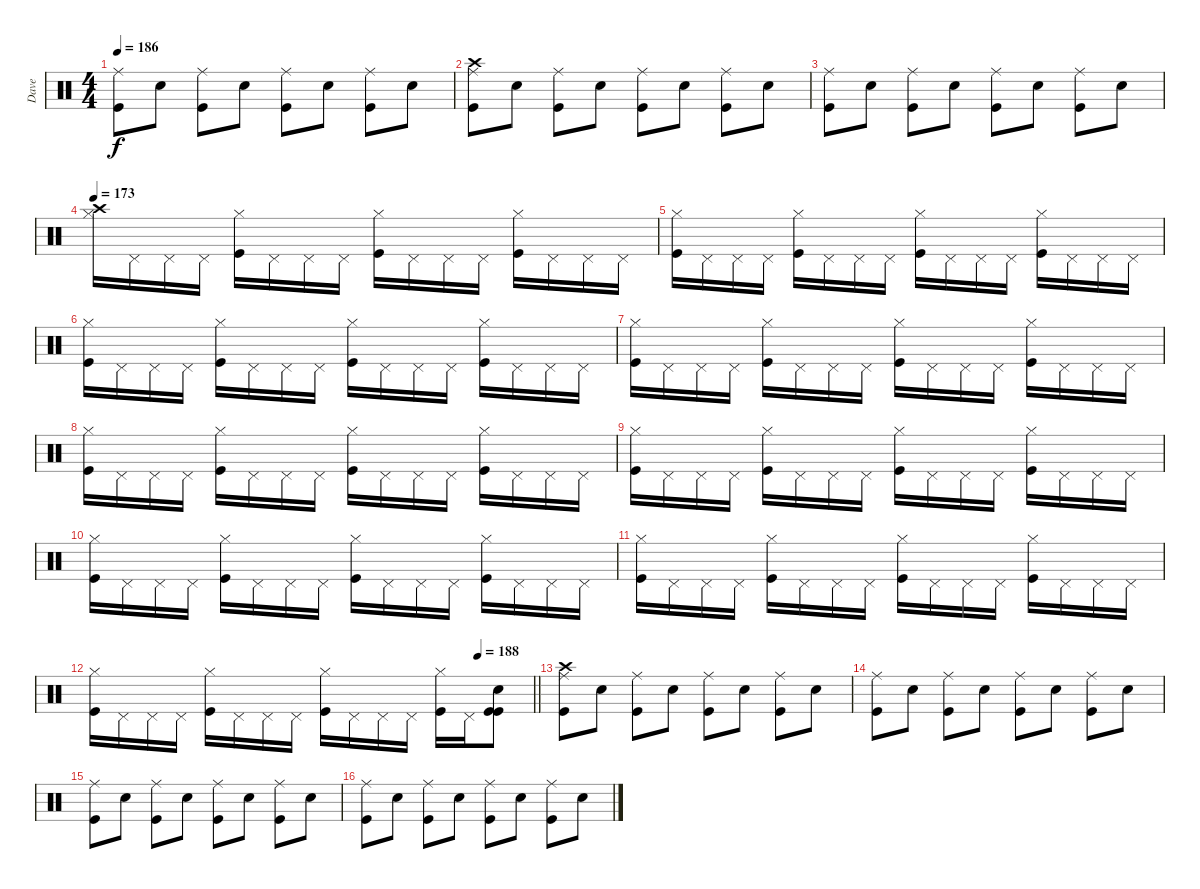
\track ("Dave" "Dave") {instrument percussion}
\staff {score}
\articulation defaults
\ts (4 4)
\tempo 186
\clef neutral
\ks c
("Ride (middle)" "Kick (hit)").8{dy f} "Snare (hit) 2".8 ("Ride (middle)" "Kick (hit)").8 "Snare (hit) 2".8 ("Ride (middle)" "Kick (hit)").8 "Snare (hit) 2".8 ("Ride (middle)" "Kick (hit)").8 "Snare (hit) 2".8 |
("Crash high (hit)" "Ride (middle)" "Kick (hit)").8 "Snare (hit) 2".8 ("Ride (middle)" "Kick (hit)").8 "Snare (hit) 2".8 ("Ride (middle)" "Kick (hit)").8 "Snare (hit) 2".8 ("Ride (middle)" "Kick (hit)").8 "Snare (hit) 2".8 |
("Ride (middle)" "Kick (hit)").8 "Snare (hit) 2".8 ("Ride (middle)" "Kick (hit)").8 "Snare (hit) 2".8 ("Ride (middle)" "Kick (hit)").8 "Snare (hit) 2".8 ("Ride (middle)" "Kick (hit)").8 "Snare (hit) 2".8 |
\tempo 173
("Crash high (hit)" "Hi-Hat (closed)").16 "Pedal Hi-Hat (hit)".16 "Pedal Hi-Hat (hit)".16 "Pedal Hi-Hat (hit)".16 ("Kick (hit)" "Hi-Hat (closed)").16 "Pedal Hi-Hat (hit)".16 "Pedal Hi-Hat (hit)".16 "Pedal Hi-Hat (hit)".16 ("Kick (hit)" "Hi-Hat (closed)").16 "Pedal Hi-Hat (hit)".16 "Pedal Hi-Hat (hit)".16 "Pedal Hi-Hat (hit)".16 ("Kick (hit)" "Hi-Hat (closed)").16 "Pedal Hi-Hat (hit)".16 "Pedal Hi-Hat (hit)".16 "Pedal Hi-Hat (hit)".16 |
("Kick (hit)" "Hi-Hat (closed)").16 "Pedal Hi-Hat (hit)".16 "Pedal Hi-Hat (hit)".16 "Pedal Hi-Hat (hit)".16 ("Kick (hit)" "Hi-Hat (closed)").16 "Pedal Hi-Hat (hit)".16 "Pedal Hi-Hat (hit)".16 "Pedal Hi-Hat (hit)".16 ("Kick (hit)" "Hi-Hat (closed)").16 "Pedal Hi-Hat (hit)".16 "Pedal Hi-Hat (hit)".16 "Pedal Hi-Hat (hit)".16 ("Kick (hit)" "Hi-Hat (closed)").16 "Pedal Hi-Hat (hit)".16 "Pedal Hi-Hat (hit)".16 "Pedal Hi-Hat (hit)".16 |
("Kick (hit)" "Hi-Hat (closed)").16 "Pedal Hi-Hat (hit)".16 "Pedal Hi-Hat (hit)".16 "Pedal Hi-Hat (hit)".16 ("Kick (hit)" "Hi-Hat (closed)").16 "Pedal Hi-Hat (hit)".16 "Pedal Hi-Hat (hit)".16 "Pedal Hi-Hat (hit)".16 ("Kick (hit)" "Hi-Hat (closed)").16 "Pedal Hi-Hat (hit)".16 "Pedal Hi-Hat (hit)".16 "Pedal Hi-Hat (hit)".16 ("Kick (hit)" "Hi-Hat (closed)").16 "Pedal Hi-Hat (hit)".16 "Pedal Hi-Hat (hit)".16 "Pedal Hi-Hat (hit)".16 |
("Kick (hit)" "Hi-Hat (closed)").16 "Pedal Hi-Hat (hit)".16 "Pedal Hi-Hat (hit)".16 "Pedal Hi-Hat (hit)".16 ("Kick (hit)" "Hi-Hat (closed)").16 "Pedal Hi-Hat (hit)".16 "Pedal Hi-Hat (hit)".16 "Pedal Hi-Hat (hit)".16 ("Kick (hit)" "Hi-Hat (closed)").16 "Pedal Hi-Hat (hit)".16 "Pedal Hi-Hat (hit)".16 "Pedal Hi-Hat (hit)".16 ("Kick (hit)" "Hi-Hat (closed)").16 "Pedal Hi-Hat (hit)".16 "Pedal Hi-Hat (hit)".16 "Pedal Hi-Hat (hit)".16 |
("Kick (hit)" "Hi-Hat (closed)").16 "Pedal Hi-Hat (hit)".16 "Pedal Hi-Hat (hit)".16 "Pedal Hi-Hat (hit)".16 ("Kick (hit)" "Hi-Hat (closed)").16 "Pedal Hi-Hat (hit)".16 "Pedal Hi-Hat (hit)".16 "Pedal Hi-Hat (hit)".16 ("Kick (hit)" "Hi-Hat (closed)").16 "Pedal Hi-Hat (hit)".16 "Pedal Hi-Hat (hit)".16 "Pedal Hi-Hat (hit)".16 ("Kick (hit)" "Hi-Hat (closed)").16 "Pedal Hi-Hat (hit)".16 "Pedal Hi-Hat (hit)".16 "Pedal Hi-Hat (hit)".16 |
("Kick (hit)" "Hi-Hat (closed)").16 "Pedal Hi-Hat (hit)".16 "Pedal Hi-Hat (hit)".16 "Pedal Hi-Hat (hit)".16 ("Kick (hit)" "Hi-Hat (closed)").16 "Pedal Hi-Hat (hit)".16 "Pedal Hi-Hat (hit)".16 "Pedal Hi-Hat (hit)".16 ("Kick (hit)" "Hi-Hat (closed)").16 "Pedal Hi-Hat (hit)".16 "Pedal Hi-Hat (hit)".16 "Pedal Hi-Hat (hit)".16 ("Kick (hit)" "Hi-Hat (closed)").16 "Pedal Hi-Hat (hit)".16 "Pedal Hi-Hat (hit)".16 "Pedal Hi-Hat (hit)".16 |
("Kick (hit)" "Hi-Hat (closed)").16 "Pedal Hi-Hat (hit)".16 "Pedal Hi-Hat (hit)".16 "Pedal Hi-Hat (hit)".16 ("Kick (hit)" "Hi-Hat (closed)").16 "Pedal Hi-Hat (hit)".16 "Pedal Hi-Hat (hit)".16 "Pedal Hi-Hat (hit)".16 ("Kick (hit)" "Hi-Hat (closed)").16 "Pedal Hi-Hat (hit)".16 "Pedal Hi-Hat (hit)".16 "Pedal Hi-Hat (hit)".16 ("Kick (hit)" "Hi-Hat (closed)").16 "Pedal Hi-Hat (hit)".16 "Pedal Hi-Hat (hit)".16 "Pedal Hi-Hat (hit)".16 |
("Kick (hit)" "Hi-Hat (closed)").16 "Pedal Hi-Hat (hit)".16 "Pedal Hi-Hat (hit)".16 "Pedal Hi-Hat (hit)".16 ("Kick (hit)" "Hi-Hat (closed)").16 "Pedal Hi-Hat (hit)".16 "Pedal Hi-Hat (hit)".16 "Pedal Hi-Hat (hit)".16 ("Kick (hit)" "Hi-Hat (closed)").16 "Pedal Hi-Hat (hit)".16 "Pedal Hi-Hat (hit)".16 "Pedal Hi-Hat (hit)".16 ("Kick (hit)" "Hi-Hat (closed)").16 "Pedal Hi-Hat (hit)".16 "Pedal Hi-Hat (hit)".16 "Pedal Hi-Hat (hit)".16 |
\tempo (188 0.875)
\barLineRight lightlight
("Kick (hit)" "Hi-Hat (closed)").16 "Pedal Hi-Hat (hit)".16 "Pedal Hi-Hat (hit)".16 "Pedal Hi-Hat (hit)".16 ("Kick (hit)" "Hi-Hat (closed)").16 "Pedal Hi-Hat (hit)".16 "Pedal Hi-Hat (hit)".16 "Pedal Hi-Hat (hit)".16 ("Kick (hit)" "Hi-Hat (closed)").16 "Pedal Hi-Hat (hit)".16 "Pedal Hi-Hat (hit)".16 "Pedal Hi-Hat (hit)".16 ("Kick (hit)" "Hi-Hat (closed)").16 "Pedal Hi-Hat (hit)".16 ("Snare (hit) 2" "Kick (hit)" "Kick (hit)").8 |
("Crash high (hit)" "Ride (middle)" "Kick (hit)").8 "Snare (hit) 2".8 ("Ride (middle)" "Kick (hit)").8 "Snare (hit) 2".8 ("Ride (middle)" "Kick (hit)").8 "Snare (hit) 2".8 ("Ride (middle)" "Kick (hit)").8 "Snare (hit) 2".8 |
("Ride (middle)" "Kick (hit)").8 "Snare (hit) 2".8 ("Ride (middle)" "Kick (hit)").8 "Snare (hit) 2".8 ("Ride (middle)" "Kick (hit)").8 "Snare (hit) 2".8 ("Ride (middle)" "Kick (hit)").8 "Snare (hit) 2".8 |
("Ride (middle)" "Kick (hit)").8 "Snare (hit) 2".8 ("Ride (middle)" "Kick (hit)").8 "Snare (hit) 2".8 ("Ride (middle)" "Kick (hit)").8 "Snare (hit) 2".8 ("Ride (middle)" "Kick (hit)").8 "Snare (hit) 2".8 |
("Ride (middle)" "Kick (hit)").8 "Snare (hit) 2".8 ("Ride (middle)" "Kick (hit)").8 "Snare (hit) 2".8 ("Ride (middle)" "Kick (hit)").8 "Snare (hit) 2".8 ("Ride (middle)" "Kick (hit)").8 "Snare (hit) 2".8
